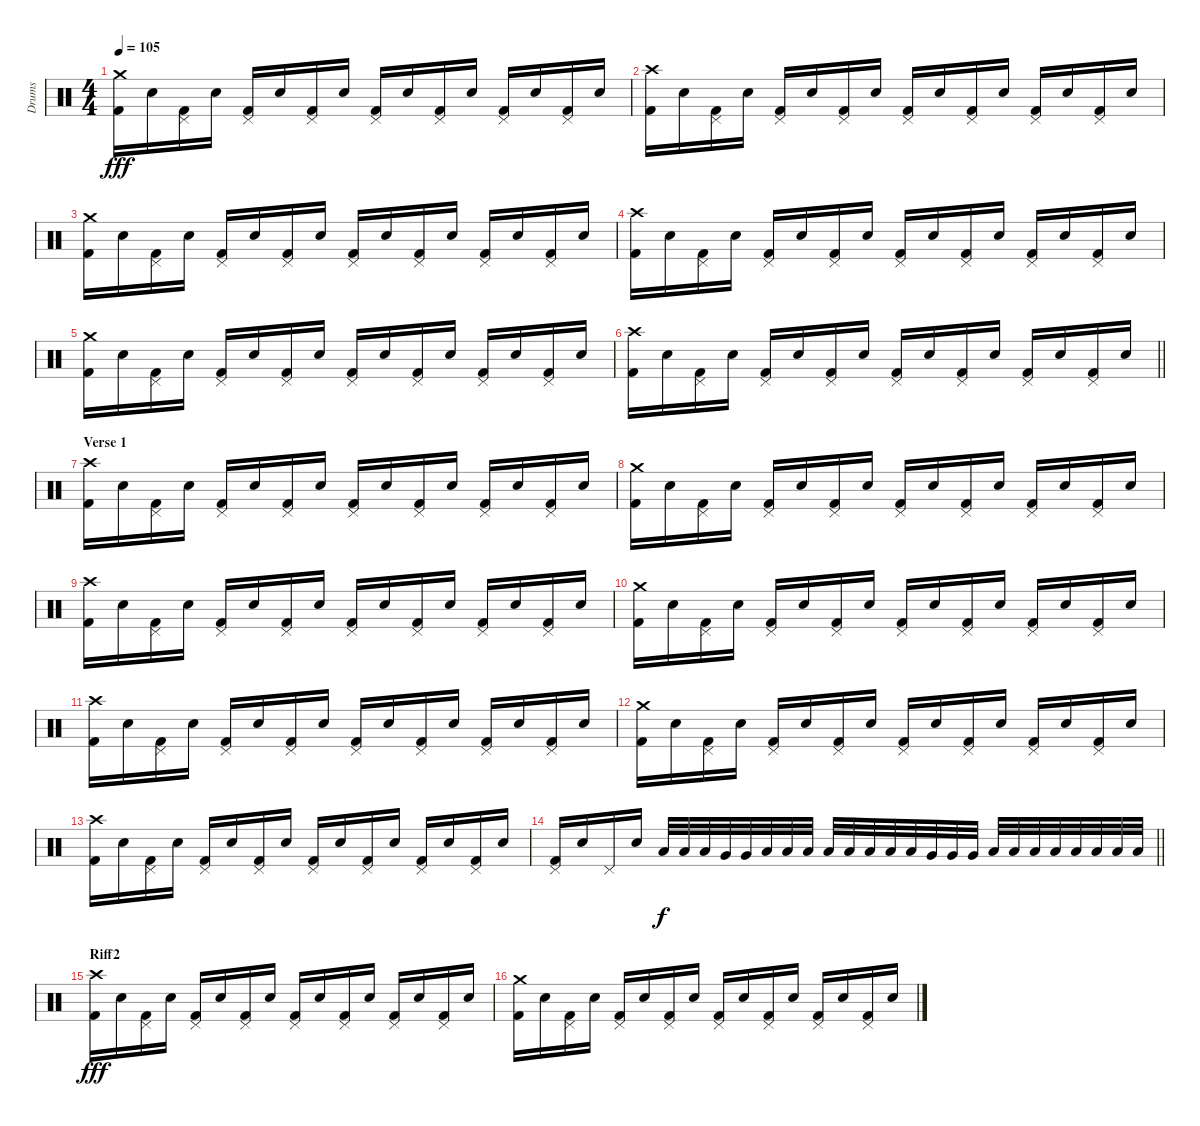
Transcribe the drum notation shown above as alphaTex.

\track ("Drums" "Drums") {instrument percussion}
\staff {score}
\articulation defaults
\ts (4 4)
\tempo 105
\clef neutral
\ks c
("Crash medium (hit)" "Kick (hit) 2").16{dy fff} "Electric Snare (hit)".16 ("Pedal Hi-Hat (hit)" "Kick (hit) 2").16 "Electric Snare (hit)".16 ("Pedal Hi-Hat (hit)" "Kick (hit) 2").16 "Electric Snare (hit)".16 ("Pedal Hi-Hat (hit)" "Kick (hit) 2").16 "Electric Snare (hit)".16 ("Pedal Hi-Hat (hit)" "Kick (hit) 2").16 "Electric Snare (hit)".16 ("Pedal Hi-Hat (hit)" "Kick (hit) 2").16 "Electric Snare (hit)".16 ("Pedal Hi-Hat (hit)" "Kick (hit) 2").16 "Electric Snare (hit)".16 ("Pedal Hi-Hat (hit)" "Kick (hit) 2").16 "Electric Snare (hit)".16 |
("Crash high (hit)" "Kick (hit) 2").16 "Electric Snare (hit)".16 ("Pedal Hi-Hat (hit)" "Kick (hit) 2").16 "Electric Snare (hit)".16 ("Pedal Hi-Hat (hit)" "Kick (hit) 2").16 "Electric Snare (hit)".16 ("Pedal Hi-Hat (hit)" "Kick (hit) 2").16 "Electric Snare (hit)".16 ("Pedal Hi-Hat (hit)" "Kick (hit) 2").16 "Electric Snare (hit)".16 ("Pedal Hi-Hat (hit)" "Kick (hit) 2").16 "Electric Snare (hit)".16 ("Pedal Hi-Hat (hit)" "Kick (hit) 2").16 "Electric Snare (hit)".16 ("Pedal Hi-Hat (hit)" "Kick (hit) 2").16 "Electric Snare (hit)".16 |
("Crash medium (hit)" "Kick (hit) 2").16 "Electric Snare (hit)".16 ("Pedal Hi-Hat (hit)" "Kick (hit) 2").16 "Electric Snare (hit)".16 ("Pedal Hi-Hat (hit)" "Kick (hit) 2").16 "Electric Snare (hit)".16 ("Pedal Hi-Hat (hit)" "Kick (hit) 2").16 "Electric Snare (hit)".16 ("Pedal Hi-Hat (hit)" "Kick (hit) 2").16 "Electric Snare (hit)".16 ("Pedal Hi-Hat (hit)" "Kick (hit) 2").16 "Electric Snare (hit)".16 ("Pedal Hi-Hat (hit)" "Kick (hit) 2").16 "Electric Snare (hit)".16 ("Pedal Hi-Hat (hit)" "Kick (hit) 2").16 "Electric Snare (hit)".16 |
("Crash high (hit)" "Kick (hit) 2").16 "Electric Snare (hit)".16 ("Pedal Hi-Hat (hit)" "Kick (hit) 2").16 "Electric Snare (hit)".16 ("Pedal Hi-Hat (hit)" "Kick (hit) 2").16 "Electric Snare (hit)".16 ("Pedal Hi-Hat (hit)" "Kick (hit) 2").16 "Electric Snare (hit)".16 ("Pedal Hi-Hat (hit)" "Kick (hit) 2").16 "Electric Snare (hit)".16 ("Pedal Hi-Hat (hit)" "Kick (hit) 2").16 "Electric Snare (hit)".16 ("Pedal Hi-Hat (hit)" "Kick (hit) 2").16 "Electric Snare (hit)".16 ("Pedal Hi-Hat (hit)" "Kick (hit) 2").16 "Electric Snare (hit)".16 |
("Crash medium (hit)" "Kick (hit) 2").16 "Electric Snare (hit)".16 ("Pedal Hi-Hat (hit)" "Kick (hit) 2").16 "Electric Snare (hit)".16 ("Pedal Hi-Hat (hit)" "Kick (hit) 2").16 "Electric Snare (hit)".16 ("Pedal Hi-Hat (hit)" "Kick (hit) 2").16 "Electric Snare (hit)".16 ("Pedal Hi-Hat (hit)" "Kick (hit) 2").16 "Electric Snare (hit)".16 ("Pedal Hi-Hat (hit)" "Kick (hit) 2").16 "Electric Snare (hit)".16 ("Pedal Hi-Hat (hit)" "Kick (hit) 2").16 "Electric Snare (hit)".16 ("Pedal Hi-Hat (hit)" "Kick (hit) 2").16 "Electric Snare (hit)".16 |
\barLineRight lightlight
("Crash high (hit)" "Kick (hit) 2").16 "Electric Snare (hit)".16 ("Pedal Hi-Hat (hit)" "Kick (hit) 2").16 "Electric Snare (hit)".16 ("Pedal Hi-Hat (hit)" "Kick (hit) 2").16 "Electric Snare (hit)".16 ("Pedal Hi-Hat (hit)" "Kick (hit) 2").16 "Electric Snare (hit)".16 ("Pedal Hi-Hat (hit)" "Kick (hit) 2").16 "Electric Snare (hit)".16 ("Pedal Hi-Hat (hit)" "Kick (hit) 2").16 "Electric Snare (hit)".16 ("Pedal Hi-Hat (hit)" "Kick (hit) 2").16 "Electric Snare (hit)".16 ("Pedal Hi-Hat (hit)" "Kick (hit) 2").16 "Electric Snare (hit)".16 |
\section ("" "Verse 1")
("Crash high (hit)" "Kick (hit) 2").16 "Electric Snare (hit)".16 ("Pedal Hi-Hat (hit)" "Kick (hit) 2").16 "Electric Snare (hit)".16 ("Pedal Hi-Hat (hit)" "Kick (hit) 2").16 "Electric Snare (hit)".16 ("Pedal Hi-Hat (hit)" "Kick (hit) 2").16 "Electric Snare (hit)".16 ("Pedal Hi-Hat (hit)" "Kick (hit) 2").16 "Electric Snare (hit)".16 ("Pedal Hi-Hat (hit)" "Kick (hit) 2").16 "Electric Snare (hit)".16 ("Pedal Hi-Hat (hit)" "Kick (hit) 2").16 "Electric Snare (hit)".16 ("Pedal Hi-Hat (hit)" "Kick (hit) 2").16 "Electric Snare (hit)".16 |
("Crash medium (hit)" "Kick (hit) 2").16 "Electric Snare (hit)".16 ("Pedal Hi-Hat (hit)" "Kick (hit) 2").16 "Electric Snare (hit)".16 ("Pedal Hi-Hat (hit)" "Kick (hit) 2").16 "Electric Snare (hit)".16 ("Pedal Hi-Hat (hit)" "Kick (hit) 2").16 "Electric Snare (hit)".16 ("Pedal Hi-Hat (hit)" "Kick (hit) 2").16 "Electric Snare (hit)".16 ("Pedal Hi-Hat (hit)" "Kick (hit) 2").16 "Electric Snare (hit)".16 ("Pedal Hi-Hat (hit)" "Kick (hit) 2").16 "Electric Snare (hit)".16 ("Pedal Hi-Hat (hit)" "Kick (hit) 2").16 "Electric Snare (hit)".16 |
("Crash high (hit)" "Kick (hit) 2").16 "Electric Snare (hit)".16 ("Pedal Hi-Hat (hit)" "Kick (hit) 2").16 "Electric Snare (hit)".16 ("Pedal Hi-Hat (hit)" "Kick (hit) 2").16 "Electric Snare (hit)".16 ("Pedal Hi-Hat (hit)" "Kick (hit) 2").16 "Electric Snare (hit)".16 ("Pedal Hi-Hat (hit)" "Kick (hit) 2").16 "Electric Snare (hit)".16 ("Pedal Hi-Hat (hit)" "Kick (hit) 2").16 "Electric Snare (hit)".16 ("Pedal Hi-Hat (hit)" "Kick (hit) 2").16 "Electric Snare (hit)".16 ("Pedal Hi-Hat (hit)" "Kick (hit) 2").16 "Electric Snare (hit)".16 |
("Crash medium (hit)" "Kick (hit) 2").16 "Electric Snare (hit)".16 ("Pedal Hi-Hat (hit)" "Kick (hit) 2").16 "Electric Snare (hit)".16 ("Pedal Hi-Hat (hit)" "Kick (hit) 2").16 "Electric Snare (hit)".16 ("Pedal Hi-Hat (hit)" "Kick (hit) 2").16 "Electric Snare (hit)".16 ("Pedal Hi-Hat (hit)" "Kick (hit) 2").16 "Electric Snare (hit)".16 ("Pedal Hi-Hat (hit)" "Kick (hit) 2").16 "Electric Snare (hit)".16 ("Pedal Hi-Hat (hit)" "Kick (hit) 2").16 "Electric Snare (hit)".16 ("Pedal Hi-Hat (hit)" "Kick (hit) 2").16 "Electric Snare (hit)".16 |
("Crash high (hit)" "Kick (hit) 2").16 "Electric Snare (hit)".16 ("Pedal Hi-Hat (hit)" "Kick (hit) 2").16 "Electric Snare (hit)".16 ("Pedal Hi-Hat (hit)" "Kick (hit) 2").16 "Electric Snare (hit)".16 ("Pedal Hi-Hat (hit)" "Kick (hit) 2").16 "Electric Snare (hit)".16 ("Pedal Hi-Hat (hit)" "Kick (hit) 2").16 "Electric Snare (hit)".16 ("Pedal Hi-Hat (hit)" "Kick (hit) 2").16 "Electric Snare (hit)".16 ("Pedal Hi-Hat (hit)" "Kick (hit) 2").16 "Electric Snare (hit)".16 ("Pedal Hi-Hat (hit)" "Kick (hit) 2").16 "Electric Snare (hit)".16 |
("Crash medium (hit)" "Kick (hit) 2").16 "Electric Snare (hit)".16 ("Pedal Hi-Hat (hit)" "Kick (hit) 2").16 "Electric Snare (hit)".16 ("Pedal Hi-Hat (hit)" "Kick (hit) 2").16 "Electric Snare (hit)".16 ("Pedal Hi-Hat (hit)" "Kick (hit) 2").16 "Electric Snare (hit)".16 ("Pedal Hi-Hat (hit)" "Kick (hit) 2").16 "Electric Snare (hit)".16 ("Pedal Hi-Hat (hit)" "Kick (hit) 2").16 "Electric Snare (hit)".16 ("Pedal Hi-Hat (hit)" "Kick (hit) 2").16 "Electric Snare (hit)".16 ("Pedal Hi-Hat (hit)" "Kick (hit) 2").16 "Electric Snare (hit)".16 |
("Crash high (hit)" "Kick (hit) 2").16 "Electric Snare (hit)".16 ("Pedal Hi-Hat (hit)" "Kick (hit) 2").16 "Electric Snare (hit)".16 ("Pedal Hi-Hat (hit)" "Kick (hit) 2").16 "Electric Snare (hit)".16 ("Pedal Hi-Hat (hit)" "Kick (hit) 2").16 "Electric Snare (hit)".16 ("Pedal Hi-Hat (hit)" "Kick (hit) 2").16 "Electric Snare (hit)".16 ("Pedal Hi-Hat (hit)" "Kick (hit) 2").16 "Electric Snare (hit)".16 ("Pedal Hi-Hat (hit)" "Kick (hit) 2").16 "Electric Snare (hit)".16 ("Pedal Hi-Hat (hit)" "Kick (hit) 2").16 "Electric Snare (hit)".16 |
\barLineRight lightlight
("Pedal Hi-Hat (hit)" "Kick (hit) 2").16 "Electric Snare (hit)".16 "Pedal Hi-Hat (hit)".16 "Electric Snare (hit)".16 "Low Floor Tom (hit)".32{dy f} "Low Floor Tom (hit)".32 "Low Floor Tom (hit)".32 "Very Low Tom (hit)".32 "Very Low Tom (hit)".32 "Low Tom (hit)".32 "Low Tom (hit)".32 "Low Tom (hit)".32 "Low Tom (hit)".32 "Low Tom (hit)".32 "Low Floor Tom (hit)".32 "Low Floor Tom (hit)".32 "Low Floor Tom (hit)".32 "Very Low Tom (hit)".32 "Very Low Tom (hit)".32 "Very Low Tom (hit)".32 "Low Tom (hit)".32 "Low Tom (hit)".32 "Low Tom (hit)".32 "Low Tom (hit)".32 "Low Tom (hit)".32 "Low Floor Tom (hit)".32 "Low Floor Tom (hit)".32 "Low Floor Tom (hit)".32 |
\section ("" "Riff2")
("Crash high (hit)" "Kick (hit) 2").16{dy fff} "Electric Snare (hit)".16 ("Pedal Hi-Hat (hit)" "Kick (hit) 2").16 "Electric Snare (hit)".16 ("Pedal Hi-Hat (hit)" "Kick (hit) 2").16 "Electric Snare (hit)".16 ("Pedal Hi-Hat (hit)" "Kick (hit) 2").16 "Electric Snare (hit)".16 ("Pedal Hi-Hat (hit)" "Kick (hit) 2").16 "Electric Snare (hit)".16 ("Pedal Hi-Hat (hit)" "Kick (hit) 2").16 "Electric Snare (hit)".16 ("Pedal Hi-Hat (hit)" "Kick (hit) 2").16 "Electric Snare (hit)".16 ("Pedal Hi-Hat (hit)" "Kick (hit) 2").16 "Electric Snare (hit)".16 |
("Crash medium (hit)" "Kick (hit) 2").16 "Electric Snare (hit)".16 ("Pedal Hi-Hat (hit)" "Kick (hit) 2").16 "Electric Snare (hit)".16 ("Pedal Hi-Hat (hit)" "Kick (hit) 2").16 "Electric Snare (hit)".16 ("Pedal Hi-Hat (hit)" "Kick (hit) 2").16 "Electric Snare (hit)".16 ("Pedal Hi-Hat (hit)" "Kick (hit) 2").16 "Electric Snare (hit)".16 ("Pedal Hi-Hat (hit)" "Kick (hit) 2").16 "Electric Snare (hit)".16 ("Pedal Hi-Hat (hit)" "Kick (hit) 2").16 "Electric Snare (hit)".16 ("Pedal Hi-Hat (hit)" "Kick (hit) 2").16 "Electric Snare (hit)".16
